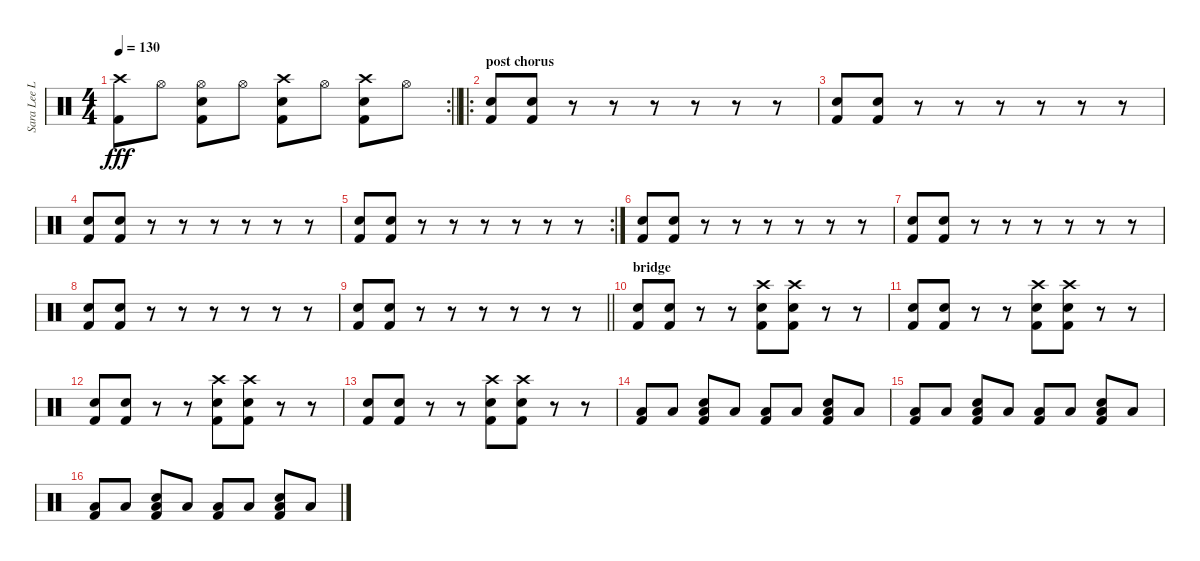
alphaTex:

\track ("Sara Lee Lucas" "Sara Lee L") {instrument percussion}
\staff {score}
\articulation defaults
\rc 2
\ts (4 4)
\tempo 130
\clef neutral
\barLineRight lightlight
\ks c
("Crash high (hit)" "Kick (hit) 2").8{dy fff} "Hi-Hat (open)".8 ("Hi-Hat (open)" "Snare (hit) 2" "Kick (hit) 2").8 "Hi-Hat (open)".8 ("Crash high (hit)" "Snare (hit) 2" "Kick (hit) 2").8 "Hi-Hat (open)".8 ("Crash high (hit)" "Snare (hit) 2" "Kick (hit) 2").8 "Hi-Hat (open)".8 |
\ro
\section ("" "post chorus")
("Snare (hit) 2" "Kick (hit) 2").8 ("Snare (hit) 2" "Kick (hit) 2").8 r.8 r.8 r.8 r.8 r.8 r.8 |
("Snare (hit) 2" "Kick (hit) 2").8 ("Snare (hit) 2" "Kick (hit) 2").8 r.8 r.8 r.8 r.8 r.8 r.8 |
("Snare (hit) 2" "Kick (hit) 2").8 ("Snare (hit) 2" "Kick (hit) 2").8 r.8 r.8 r.8 r.8 r.8 r.8 |
\rc 2
("Snare (hit) 2" "Kick (hit) 2").8 ("Snare (hit) 2" "Kick (hit) 2").8 r.8 r.8 r.8 r.8 r.8 r.8 |
("Snare (hit) 2" "Kick (hit) 2").8 ("Snare (hit) 2" "Kick (hit) 2").8 r.8 r.8 r.8 r.8 r.8 r.8 |
("Snare (hit) 2" "Kick (hit) 2").8 ("Snare (hit) 2" "Kick (hit) 2").8 r.8 r.8 r.8 r.8 r.8 r.8 |
("Snare (hit) 2" "Kick (hit) 2").8 ("Snare (hit) 2" "Kick (hit) 2").8 r.8 r.8 r.8 r.8 r.8 r.8 |
\barLineRight lightlight
("Snare (hit) 2" "Kick (hit) 2").8 ("Snare (hit) 2" "Kick (hit) 2").8 r.8 r.8 r.8 r.8 r.8 r.8 |
\section ("" "bridge")
("Snare (hit) 2" "Kick (hit) 2").8 ("Snare (hit) 2" "Kick (hit) 2").8 r.8 r.8 ("Crash high (hit)" "Snare (hit) 2" "Kick (hit) 2").8 ("Crash high (hit)" "Snare (hit) 2" "Kick (hit) 2").8 r.8 r.8 |
("Snare (hit) 2" "Kick (hit) 2").8 ("Snare (hit) 2" "Kick (hit) 2").8 r.8 r.8 ("Crash high (hit)" "Snare (hit) 2" "Kick (hit) 2").8 ("Crash high (hit)" "Snare (hit) 2" "Kick (hit) 2").8 r.8 r.8 |
("Snare (hit) 2" "Kick (hit) 2").8 ("Snare (hit) 2" "Kick (hit) 2").8 r.8 r.8 ("Crash high (hit)" "Snare (hit) 2" "Kick (hit) 2").8 ("Crash high (hit)" "Snare (hit) 2" "Kick (hit) 2").8 r.8 r.8 |
("Snare (hit) 2" "Kick (hit) 2").8 ("Snare (hit) 2" "Kick (hit) 2").8 r.8 r.8 ("Crash high (hit)" "Snare (hit) 2" "Kick (hit) 2").8 ("Crash high (hit)" "Snare (hit) 2" "Kick (hit) 2").8 r.8 r.8 |
("Low Tom (hit)" "Kick (hit) 2").8 "Low Tom (hit)".8 ("Low Tom (hit)" "Snare (hit) 2" "Kick (hit) 2").8 "Low Tom (hit)".8 ("Low Tom (hit)" "Kick (hit) 2").8 "Low Tom (hit)".8 ("Low Tom (hit)" "Snare (hit) 2" "Kick (hit) 2").8 "Low Tom (hit)".8 |
("Low Tom (hit)" "Kick (hit) 2").8 "Low Tom (hit)".8 ("Low Tom (hit)" "Snare (hit) 2" "Kick (hit) 2").8 "Low Tom (hit)".8 ("Low Tom (hit)" "Kick (hit) 2").8 "Low Tom (hit)".8 ("Low Tom (hit)" "Snare (hit) 2" "Kick (hit) 2").8 "Low Tom (hit)".8 |
("Low Tom (hit)" "Kick (hit) 2").8 "Low Tom (hit)".8 ("Low Tom (hit)" "Snare (hit) 2" "Kick (hit) 2").8 "Low Tom (hit)".8 ("Low Tom (hit)" "Kick (hit) 2").8 "Low Tom (hit)".8 ("Low Tom (hit)" "Snare (hit) 2" "Kick (hit) 2").8 "Low Tom (hit)".8
